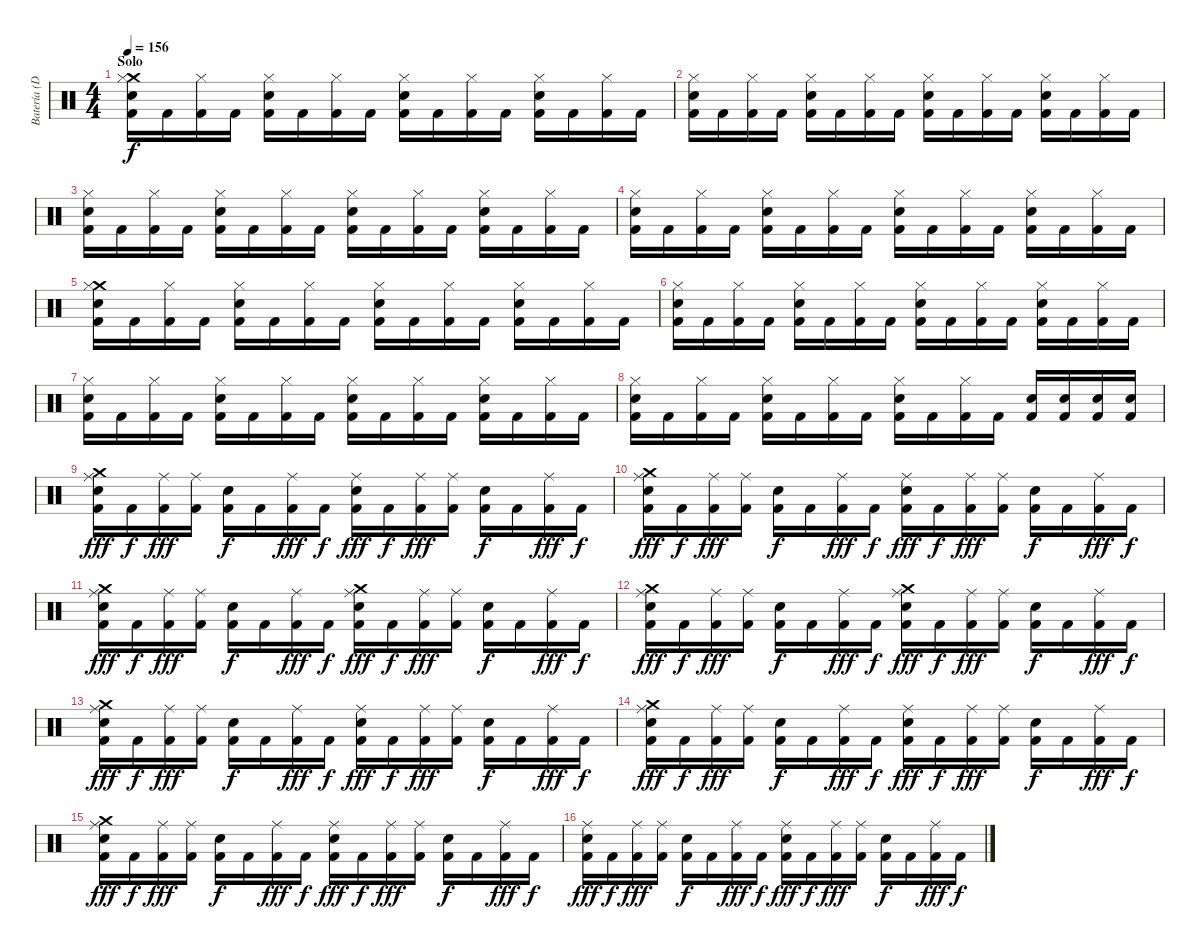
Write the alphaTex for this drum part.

\track ("Batería (Dani)" "Batería (D") {instrument percussion}
\staff {score}
\articulation defaults
\ts (4 4)
\section ("" "Solo")
\tempo 156
\clef neutral
\ks c
("Crash medium (hit)" "Hi-Hat (closed)" "Snare (hit) 2" "Kick (hit) 2").16{dy f} "Kick (hit) 2".16 ("Hi-Hat (closed)" "Kick (hit) 2").16 "Kick (hit) 2".16 ("Hi-Hat (closed)" "Snare (hit) 2" "Kick (hit) 2").16 "Kick (hit) 2".16 ("Hi-Hat (closed)" "Kick (hit) 2").16 "Kick (hit) 2".16 ("Hi-Hat (closed)" "Snare (hit) 2" "Kick (hit) 2").16 "Kick (hit) 2".16 ("Hi-Hat (closed)" "Kick (hit) 2").16 "Kick (hit) 2".16 ("Hi-Hat (closed)" "Snare (hit) 2" "Kick (hit) 2").16 "Kick (hit) 2".16 ("Hi-Hat (closed)" "Kick (hit) 2").16 "Kick (hit) 2".16 |
("Hi-Hat (closed)" "Snare (hit) 2" "Kick (hit) 2").16 "Kick (hit) 2".16 ("Hi-Hat (closed)" "Kick (hit) 2").16 "Kick (hit) 2".16 ("Hi-Hat (closed)" "Snare (hit) 2" "Kick (hit) 2").16 "Kick (hit) 2".16 ("Hi-Hat (closed)" "Kick (hit) 2").16 "Kick (hit) 2".16 ("Hi-Hat (closed)" "Snare (hit) 2" "Kick (hit) 2").16 "Kick (hit) 2".16 ("Hi-Hat (closed)" "Kick (hit) 2").16 "Kick (hit) 2".16 ("Hi-Hat (closed)" "Snare (hit) 2" "Kick (hit) 2").16 "Kick (hit) 2".16 ("Hi-Hat (closed)" "Kick (hit) 2").16 "Kick (hit) 2".16 |
("Hi-Hat (closed)" "Snare (hit) 2" "Kick (hit) 2").16 "Kick (hit) 2".16 ("Hi-Hat (closed)" "Kick (hit) 2").16 "Kick (hit) 2".16 ("Hi-Hat (closed)" "Snare (hit) 2" "Kick (hit) 2").16 "Kick (hit) 2".16 ("Hi-Hat (closed)" "Kick (hit) 2").16 "Kick (hit) 2".16 ("Hi-Hat (closed)" "Snare (hit) 2" "Kick (hit) 2").16 "Kick (hit) 2".16 ("Hi-Hat (closed)" "Kick (hit) 2").16 "Kick (hit) 2".16 ("Hi-Hat (closed)" "Snare (hit) 2" "Kick (hit) 2").16 "Kick (hit) 2".16 ("Hi-Hat (closed)" "Kick (hit) 2").16 "Kick (hit) 2".16 |
("Hi-Hat (closed)" "Snare (hit) 2" "Kick (hit) 2").16 "Kick (hit) 2".16 ("Hi-Hat (closed)" "Kick (hit) 2").16 "Kick (hit) 2".16 ("Hi-Hat (closed)" "Snare (hit) 2" "Kick (hit) 2").16 "Kick (hit) 2".16 ("Hi-Hat (closed)" "Kick (hit) 2").16 "Kick (hit) 2".16 ("Hi-Hat (closed)" "Snare (hit) 2" "Kick (hit) 2").16 "Kick (hit) 2".16 ("Hi-Hat (closed)" "Kick (hit) 2").16 "Kick (hit) 2".16 ("Hi-Hat (closed)" "Snare (hit) 2" "Kick (hit) 2").16 "Kick (hit) 2".16 ("Hi-Hat (closed)" "Kick (hit) 2").16 "Kick (hit) 2".16 |
("Crash medium (hit)" "Hi-Hat (closed)" "Snare (hit) 2" "Kick (hit) 2").16 "Kick (hit) 2".16 ("Hi-Hat (closed)" "Kick (hit) 2").16 "Kick (hit) 2".16 ("Hi-Hat (closed)" "Snare (hit) 2" "Kick (hit) 2").16 "Kick (hit) 2".16 ("Hi-Hat (closed)" "Kick (hit) 2").16 "Kick (hit) 2".16 ("Hi-Hat (closed)" "Snare (hit) 2" "Kick (hit) 2").16 "Kick (hit) 2".16 ("Hi-Hat (closed)" "Kick (hit) 2").16 "Kick (hit) 2".16 ("Hi-Hat (closed)" "Snare (hit) 2" "Kick (hit) 2").16 "Kick (hit) 2".16 ("Hi-Hat (closed)" "Kick (hit) 2").16 "Kick (hit) 2".16 |
("Hi-Hat (closed)" "Snare (hit) 2" "Kick (hit) 2").16 "Kick (hit) 2".16 ("Hi-Hat (closed)" "Kick (hit) 2").16 "Kick (hit) 2".16 ("Hi-Hat (closed)" "Snare (hit) 2" "Kick (hit) 2").16 "Kick (hit) 2".16 ("Hi-Hat (closed)" "Kick (hit) 2").16 "Kick (hit) 2".16 ("Hi-Hat (closed)" "Snare (hit) 2" "Kick (hit) 2").16 "Kick (hit) 2".16 ("Hi-Hat (closed)" "Kick (hit) 2").16 "Kick (hit) 2".16 ("Hi-Hat (closed)" "Snare (hit) 2" "Kick (hit) 2").16 "Kick (hit) 2".16 ("Hi-Hat (closed)" "Kick (hit) 2").16 "Kick (hit) 2".16 |
("Hi-Hat (closed)" "Snare (hit) 2" "Kick (hit) 2").16 "Kick (hit) 2".16 ("Hi-Hat (closed)" "Kick (hit) 2").16 "Kick (hit) 2".16 ("Hi-Hat (closed)" "Snare (hit) 2" "Kick (hit) 2").16 "Kick (hit) 2".16 ("Hi-Hat (closed)" "Kick (hit) 2").16 "Kick (hit) 2".16 ("Hi-Hat (closed)" "Snare (hit) 2" "Kick (hit) 2").16 "Kick (hit) 2".16 ("Hi-Hat (closed)" "Kick (hit) 2").16 "Kick (hit) 2".16 ("Hi-Hat (closed)" "Snare (hit) 2" "Kick (hit) 2").16 "Kick (hit) 2".16 ("Hi-Hat (closed)" "Kick (hit) 2").16 "Kick (hit) 2".16 |
("Hi-Hat (closed)" "Snare (hit) 2" "Kick (hit) 2").16 "Kick (hit) 2".16 ("Hi-Hat (closed)" "Kick (hit) 2").16 "Kick (hit) 2".16 ("Hi-Hat (closed)" "Snare (hit) 2" "Kick (hit) 2").16 "Kick (hit) 2".16 ("Hi-Hat (closed)" "Kick (hit) 2").16 "Kick (hit) 2".16 ("Hi-Hat (closed)" "Snare (hit) 2" "Kick (hit) 2").16 "Kick (hit) 2".16 ("Hi-Hat (closed)" "Kick (hit) 2").16 "Kick (hit) 2".16 ("Snare (hit) 2" "Kick (hit) 2").16 ("Snare (hit) 2" "Kick (hit) 2").16 ("Snare (hit) 2" "Kick (hit) 2").16 ("Snare (hit) 2" "Kick (hit) 2").16 |
("Crash medium (hit)" "Ride (middle)" "Snare (hit) 2" "Kick (hit) 2").16{dy fff} "Kick (hit) 2".16{dy f} ("Ride (middle)" "Kick (hit) 2").16{dy fff} ("Ride (middle)" "Kick (hit) 2").16 ("Snare (hit) 2" "Kick (hit) 2").16{dy f} "Kick (hit) 2".16 ("Ride (middle)" "Kick (hit) 2").16{dy fff} "Kick (hit) 2".16{dy f} ("Ride (middle)" "Snare (hit) 2" "Kick (hit) 2").16{dy fff} "Kick (hit) 2".16{dy f} ("Ride (middle)" "Kick (hit) 2").16{dy fff} ("Ride (middle)" "Kick (hit) 2").16 ("Snare (hit) 2" "Kick (hit) 2").16{dy f} "Kick (hit) 2".16 ("Ride (middle)" "Kick (hit) 2").16{dy fff} "Kick (hit) 2".16{dy f} |
("Crash medium (hit)" "Ride (middle)" "Snare (hit) 2" "Kick (hit) 2").16{dy fff} "Kick (hit) 2".16{dy f} ("Ride (middle)" "Kick (hit) 2").16{dy fff} ("Ride (middle)" "Kick (hit) 2").16 ("Snare (hit) 2" "Kick (hit) 2").16{dy f} "Kick (hit) 2".16 ("Ride (middle)" "Kick (hit) 2").16{dy fff} "Kick (hit) 2".16{dy f} ("Ride (middle)" "Snare (hit) 2" "Kick (hit) 2").16{dy fff} "Kick (hit) 2".16{dy f} ("Ride (middle)" "Kick (hit) 2").16{dy fff} ("Ride (middle)" "Kick (hit) 2").16 ("Snare (hit) 2" "Kick (hit) 2").16{dy f} "Kick (hit) 2".16 ("Ride (middle)" "Kick (hit) 2").16{dy fff} "Kick (hit) 2".16{dy f} |
("Crash medium (hit)" "Ride (middle)" "Snare (hit) 2" "Kick (hit) 2").16{dy fff} "Kick (hit) 2".16{dy f} ("Ride (middle)" "Kick (hit) 2").16{dy fff} ("Ride (middle)" "Kick (hit) 2").16 ("Snare (hit) 2" "Kick (hit) 2").16{dy f} "Kick (hit) 2".16 ("Ride (middle)" "Kick (hit) 2").16{dy fff} "Kick (hit) 2".16{dy f} ("Crash medium (hit)" "Ride (middle)" "Snare (hit) 2" "Kick (hit) 2").16{dy fff} "Kick (hit) 2".16{dy f} ("Ride (middle)" "Kick (hit) 2").16{dy fff} ("Ride (middle)" "Kick (hit) 2").16 ("Snare (hit) 2" "Kick (hit) 2").16{dy f} "Kick (hit) 2".16 ("Ride (middle)" "Kick (hit) 2").16{dy fff} "Kick (hit) 2".16{dy f} |
("Crash medium (hit)" "Ride (middle)" "Snare (hit) 2" "Kick (hit) 2").16{dy fff} "Kick (hit) 2".16{dy f} ("Ride (middle)" "Kick (hit) 2").16{dy fff} ("Ride (middle)" "Kick (hit) 2").16 ("Snare (hit) 2" "Kick (hit) 2").16{dy f} "Kick (hit) 2".16 ("Ride (middle)" "Kick (hit) 2").16{dy fff} "Kick (hit) 2".16{dy f} ("Crash medium (hit)" "Ride (middle)" "Snare (hit) 2" "Kick (hit) 2").16{dy fff} "Kick (hit) 2".16{dy f} ("Ride (middle)" "Kick (hit) 2").16{dy fff} ("Ride (middle)" "Kick (hit) 2").16 ("Snare (hit) 2" "Kick (hit) 2").16{dy f} "Kick (hit) 2".16 ("Ride (middle)" "Kick (hit) 2").16{dy fff} "Kick (hit) 2".16{dy f} |
("Crash medium (hit)" "Ride (middle)" "Snare (hit) 2" "Kick (hit) 2").16{dy fff} "Kick (hit) 2".16{dy f} ("Ride (middle)" "Kick (hit) 2").16{dy fff} ("Ride (middle)" "Kick (hit) 2").16 ("Snare (hit) 2" "Kick (hit) 2").16{dy f} "Kick (hit) 2".16 ("Ride (middle)" "Kick (hit) 2").16{dy fff} "Kick (hit) 2".16{dy f} ("Ride (middle)" "Snare (hit) 2" "Kick (hit) 2").16{dy fff} "Kick (hit) 2".16{dy f} ("Ride (middle)" "Kick (hit) 2").16{dy fff} ("Ride (middle)" "Kick (hit) 2").16 ("Snare (hit) 2" "Kick (hit) 2").16{dy f} "Kick (hit) 2".16 ("Ride (middle)" "Kick (hit) 2").16{dy fff} "Kick (hit) 2".16{dy f} |
("Crash medium (hit)" "Ride (middle)" "Snare (hit) 2" "Kick (hit) 2").16{dy fff} "Kick (hit) 2".16{dy f} ("Ride (middle)" "Kick (hit) 2").16{dy fff} ("Ride (middle)" "Kick (hit) 2").16 ("Snare (hit) 2" "Kick (hit) 2").16{dy f} "Kick (hit) 2".16 ("Ride (middle)" "Kick (hit) 2").16{dy fff} "Kick (hit) 2".16{dy f} ("Ride (middle)" "Snare (hit) 2" "Kick (hit) 2").16{dy fff} "Kick (hit) 2".16{dy f} ("Ride (middle)" "Kick (hit) 2").16{dy fff} ("Ride (middle)" "Kick (hit) 2").16 ("Snare (hit) 2" "Kick (hit) 2").16{dy f} "Kick (hit) 2".16 ("Ride (middle)" "Kick (hit) 2").16{dy fff} "Kick (hit) 2".16{dy f} |
("Crash medium (hit)" "Ride (middle)" "Snare (hit) 2" "Kick (hit) 2").16{dy fff} "Kick (hit) 2".16{dy f} ("Ride (middle)" "Kick (hit) 2").16{dy fff} ("Ride (middle)" "Kick (hit) 2").16 ("Snare (hit) 2" "Kick (hit) 2").16{dy f} "Kick (hit) 2".16 ("Ride (middle)" "Kick (hit) 2").16{dy fff} "Kick (hit) 2".16{dy f} ("Ride (middle)" "Snare (hit) 2" "Kick (hit) 2").16{dy fff} "Kick (hit) 2".16{dy f} ("Ride (middle)" "Kick (hit) 2").16{dy fff} ("Ride (middle)" "Kick (hit) 2").16 ("Snare (hit) 2" "Kick (hit) 2").16{dy f} "Kick (hit) 2".16 ("Ride (middle)" "Kick (hit) 2").16{dy fff} "Kick (hit) 2".16{dy f} |
("Ride (middle)" "Snare (hit) 2" "Kick (hit) 2").16{dy fff} "Kick (hit) 2".16{dy f} ("Ride (middle)" "Kick (hit) 2").16{dy fff} ("Ride (middle)" "Kick (hit) 2").16 ("Snare (hit) 2" "Kick (hit) 2").16{dy f} "Kick (hit) 2".16 ("Ride (middle)" "Kick (hit) 2").16{dy fff} "Kick (hit) 2".16{dy f} ("Ride (middle)" "Snare (hit) 2" "Kick (hit) 2").16{dy fff} "Kick (hit) 2".16{dy f} ("Ride (middle)" "Kick (hit) 2").16{dy fff} ("Ride (middle)" "Kick (hit) 2").16 ("Snare (hit) 2" "Kick (hit) 2").16{dy f} "Kick (hit) 2".16 ("Ride (middle)" "Kick (hit) 2").16{dy fff} "Kick (hit) 2".16{dy f}
